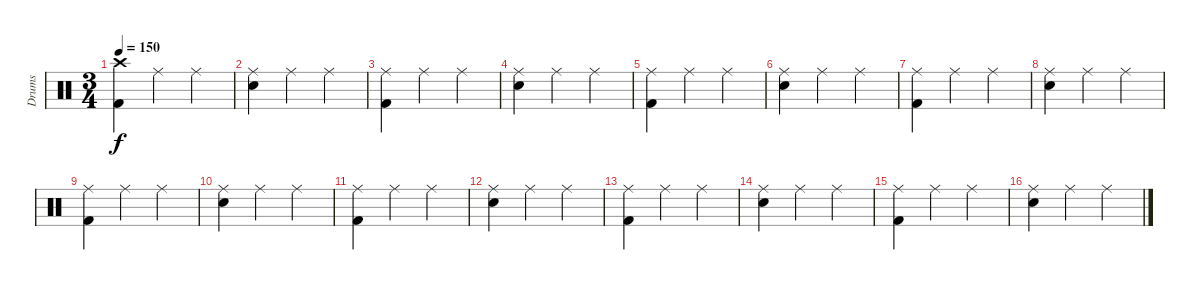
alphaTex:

\track ("Drums" "Drums") {instrument percussion}
\staff {score}
\articulation defaults
\ts (3 4)
\tempo 150
\clef neutral
\ks c
("Crash high (hit)" "Kick (hit) 2").4{dy f} "Ride (middle)".4 "Ride (middle)".4 |
("Ride (middle)" "Snare (hit) 2").4 "Ride (middle)".4 "Ride (middle)".4 |
("Ride (middle)" "Kick (hit) 2").4 "Ride (middle)".4 "Ride (middle)".4 |
("Ride (middle)" "Snare (hit) 2").4 "Ride (middle)".4 "Ride (middle)".4 |
("Ride (middle)" "Kick (hit) 2").4 "Ride (middle)".4 "Ride (middle)".4 |
("Ride (middle)" "Snare (hit) 2").4 "Ride (middle)".4 "Ride (middle)".4 |
("Ride (middle)" "Kick (hit) 2").4 "Ride (middle)".4 "Ride (middle)".4 |
("Ride (middle)" "Snare (hit) 2").4 "Ride (middle)".4 "Ride (middle)".4 |
("Ride (middle)" "Kick (hit) 2").4 "Ride (middle)".4 "Ride (middle)".4 |
("Ride (middle)" "Snare (hit) 2").4 "Ride (middle)".4 "Ride (middle)".4 |
("Ride (middle)" "Kick (hit) 2").4 "Ride (middle)".4 "Ride (middle)".4 |
("Ride (middle)" "Snare (hit) 2").4 "Ride (middle)".4 "Ride (middle)".4 |
("Ride (middle)" "Kick (hit) 2").4 "Ride (middle)".4 "Ride (middle)".4 |
("Ride (middle)" "Snare (hit) 2").4 "Ride (middle)".4 "Ride (middle)".4 |
("Ride (middle)" "Kick (hit) 2").4 "Ride (middle)".4 "Ride (middle)".4 |
("Ride (middle)" "Snare (hit) 2").4 "Ride (middle)".4 "Ride (middle)".4
